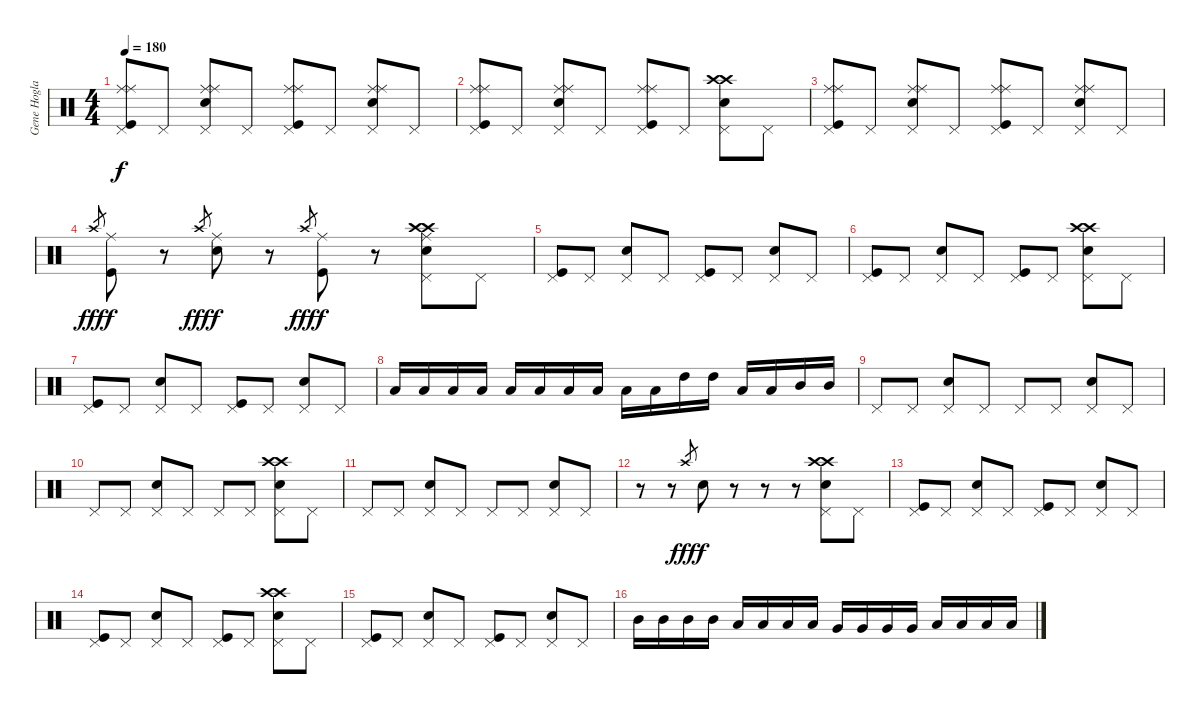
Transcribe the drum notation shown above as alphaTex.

\track ("Gene Hoglan" "Gene Hogla") {instrument percussion}
\staff {score}
\articulation defaults
\ts (4 4)
\tempo 180
\clef neutral
\ks c
("Ride (middle)" "Ride (middle)" "Pedal Hi-Hat (hit)" "Kick (hit)").8{dy f} "Pedal Hi-Hat (hit)".8 ("Ride (middle)" "Ride (middle)" "Pedal Hi-Hat (hit)" "Snare (hit) 2").8 "Pedal Hi-Hat (hit)".8 ("Ride (middle)" "Ride (middle)" "Pedal Hi-Hat (hit)" "Kick (hit)").8 "Pedal Hi-Hat (hit)".8 ("Ride (middle)" "Ride (middle)" "Pedal Hi-Hat (hit)" "Snare (hit) 2").8 "Pedal Hi-Hat (hit)".8 |
("Ride (middle)" "Ride (middle)" "Pedal Hi-Hat (hit)" "Kick (hit)").8 "Pedal Hi-Hat (hit)".8 ("Ride (middle)" "Ride (middle)" "Pedal Hi-Hat (hit)" "Snare (hit) 2").8 "Pedal Hi-Hat (hit)".8 ("Ride (middle)" "Ride (middle)" "Pedal Hi-Hat (hit)" "Kick (hit)").8 "Pedal Hi-Hat (hit)".8 ("Crash high (hit)" "Crash high (hit)" "Pedal Hi-Hat (hit)" "Snare (hit) 2").8 "Pedal Hi-Hat (hit)".8 |
("Ride (middle)" "Ride (middle)" "Pedal Hi-Hat (hit)" "Kick (hit)").8 "Pedal Hi-Hat (hit)".8 ("Ride (middle)" "Ride (middle)" "Pedal Hi-Hat (hit)" "Snare (hit) 2").8 "Pedal Hi-Hat (hit)".8 ("Ride (middle)" "Ride (middle)" "Pedal Hi-Hat (hit)" "Kick (hit)").8 "Pedal Hi-Hat (hit)".8 ("Ride (middle)" "Ride (middle)" "Pedal Hi-Hat (hit)" "Snare (hit) 2").8 "Pedal Hi-Hat (hit)".8 |
"Crash high (hit)".8{gr dy fff} ("Ride (middle)" "Kick (hit)").8{dy f} r.8 "Crash high (hit)".8{gr dy fff} ("Ride (middle)" "Snare (hit) 2").8{dy f} r.8 "Crash high (hit)".8{gr dy fff} ("Ride (middle)" "Kick (hit)").8{dy f} r.8 ("Ride (middle)" "Crash high (hit)" "Crash high (hit)" "Pedal Hi-Hat (hit)" "Snare (hit) 2").8 "Pedal Hi-Hat (hit)".8 |
("Pedal Hi-Hat (hit)" "Kick (hit)").8 "Pedal Hi-Hat (hit)".8 ("Pedal Hi-Hat (hit)" "Snare (hit) 2").8 "Pedal Hi-Hat (hit)".8 ("Pedal Hi-Hat (hit)" "Kick (hit)").8 "Pedal Hi-Hat (hit)".8 ("Pedal Hi-Hat (hit)" "Snare (hit) 2").8 "Pedal Hi-Hat (hit)".8 |
("Pedal Hi-Hat (hit)" "Kick (hit)").8 "Pedal Hi-Hat (hit)".8 ("Pedal Hi-Hat (hit)" "Snare (hit) 2").8 "Pedal Hi-Hat (hit)".8 ("Pedal Hi-Hat (hit)" "Kick (hit)").8 "Pedal Hi-Hat (hit)".8 ("Crash high (hit)" "Crash high (hit)" "Pedal Hi-Hat (hit)" "Snare (hit) 2").8 "Pedal Hi-Hat (hit)".8 |
("Pedal Hi-Hat (hit)" "Kick (hit)").8 "Pedal Hi-Hat (hit)".8 ("Pedal Hi-Hat (hit)" "Snare (hit) 2").8 "Pedal Hi-Hat (hit)".8 ("Pedal Hi-Hat (hit)" "Kick (hit)").8 "Pedal Hi-Hat (hit)".8 ("Pedal Hi-Hat (hit)" "Snare (hit) 2").8 "Pedal Hi-Hat (hit)".8 |
"Low Tom (hit)".16 "Low Tom (hit)".16 "Low Tom (hit)".16 "Low Tom (hit)".16 "Low Floor Tom (hit)".16 "Low Floor Tom (hit)".16 "Low Floor Tom (hit)".16 "Low Floor Tom (hit)".16 "Low Tom (hit)".16 "Low Tom (hit)".16 "High Tom (hit)".16 "High Tom (hit)".16 "Low Tom (hit)".16 "Low Tom (hit)".16 "Mid Tom (hit)".16 "Mid Tom (hit)".16 |
"Pedal Hi-Hat (hit)".8 "Pedal Hi-Hat (hit)".8 ("Pedal Hi-Hat (hit)" "Snare (hit) 2").8 "Pedal Hi-Hat (hit)".8 "Pedal Hi-Hat (hit)".8 "Pedal Hi-Hat (hit)".8 ("Pedal Hi-Hat (hit)" "Snare (hit) 2").8 "Pedal Hi-Hat (hit)".8 |
"Pedal Hi-Hat (hit)".8 "Pedal Hi-Hat (hit)".8 ("Pedal Hi-Hat (hit)" "Snare (hit) 2").8 "Pedal Hi-Hat (hit)".8 "Pedal Hi-Hat (hit)".8 "Pedal Hi-Hat (hit)".8 ("Crash high (hit)" "Crash high (hit)" "Pedal Hi-Hat (hit)" "Snare (hit) 2").8 "Pedal Hi-Hat (hit)".8 |
"Pedal Hi-Hat (hit)".8 "Pedal Hi-Hat (hit)".8 ("Pedal Hi-Hat (hit)" "Snare (hit) 2").8 "Pedal Hi-Hat (hit)".8 "Pedal Hi-Hat (hit)".8 "Pedal Hi-Hat (hit)".8 ("Pedal Hi-Hat (hit)" "Snare (hit) 2").8 "Pedal Hi-Hat (hit)".8 |
r.8 r.8 "Crash high (hit)".8{gr dy fff} "Snare (hit) 2".8{dy f} r.8 r.8 r.8 ("Crash high (hit)" "Crash high (hit)" "Pedal Hi-Hat (hit)" "Snare (hit) 2").8 "Pedal Hi-Hat (hit)".8 |
("Pedal Hi-Hat (hit)" "Kick (hit)").8 "Pedal Hi-Hat (hit)".8 ("Pedal Hi-Hat (hit)" "Snare (hit) 2").8 "Pedal Hi-Hat (hit)".8 ("Pedal Hi-Hat (hit)" "Kick (hit)").8 "Pedal Hi-Hat (hit)".8 ("Pedal Hi-Hat (hit)" "Snare (hit) 2").8 "Pedal Hi-Hat (hit)".8 |
("Pedal Hi-Hat (hit)" "Kick (hit)").8 "Pedal Hi-Hat (hit)".8 ("Pedal Hi-Hat (hit)" "Snare (hit) 2").8 "Pedal Hi-Hat (hit)".8 ("Pedal Hi-Hat (hit)" "Kick (hit)").8 "Pedal Hi-Hat (hit)".8 ("Crash high (hit)" "Crash high (hit)" "Pedal Hi-Hat (hit)" "Snare (hit) 2").8 "Pedal Hi-Hat (hit)".8 |
("Pedal Hi-Hat (hit)" "Kick (hit)").8 "Pedal Hi-Hat (hit)".8 ("Pedal Hi-Hat (hit)" "Snare (hit) 2").8 "Pedal Hi-Hat (hit)".8 ("Pedal Hi-Hat (hit)" "Kick (hit)").8 "Pedal Hi-Hat (hit)".8 ("Pedal Hi-Hat (hit)" "Snare (hit) 2").8 "Pedal Hi-Hat (hit)".8 |
"Mid Tom (hit)".16 "Mid Tom (hit)".16 "Mid Tom (hit)".16 "Mid Tom (hit)".16 "Low Tom (hit)".16 "Low Tom (hit)".16 "Low Tom (hit)".16 "Low Tom (hit)".16 "Very Low Tom (hit)".16 "Very Low Tom (hit)".16 "Very Low Tom (hit)".16 "Very Low Tom (hit)".16 "Low Floor Tom (hit)".16 "Low Floor Tom (hit)".16 "Low Floor Tom (hit)".16 "Low Floor Tom (hit)".16
